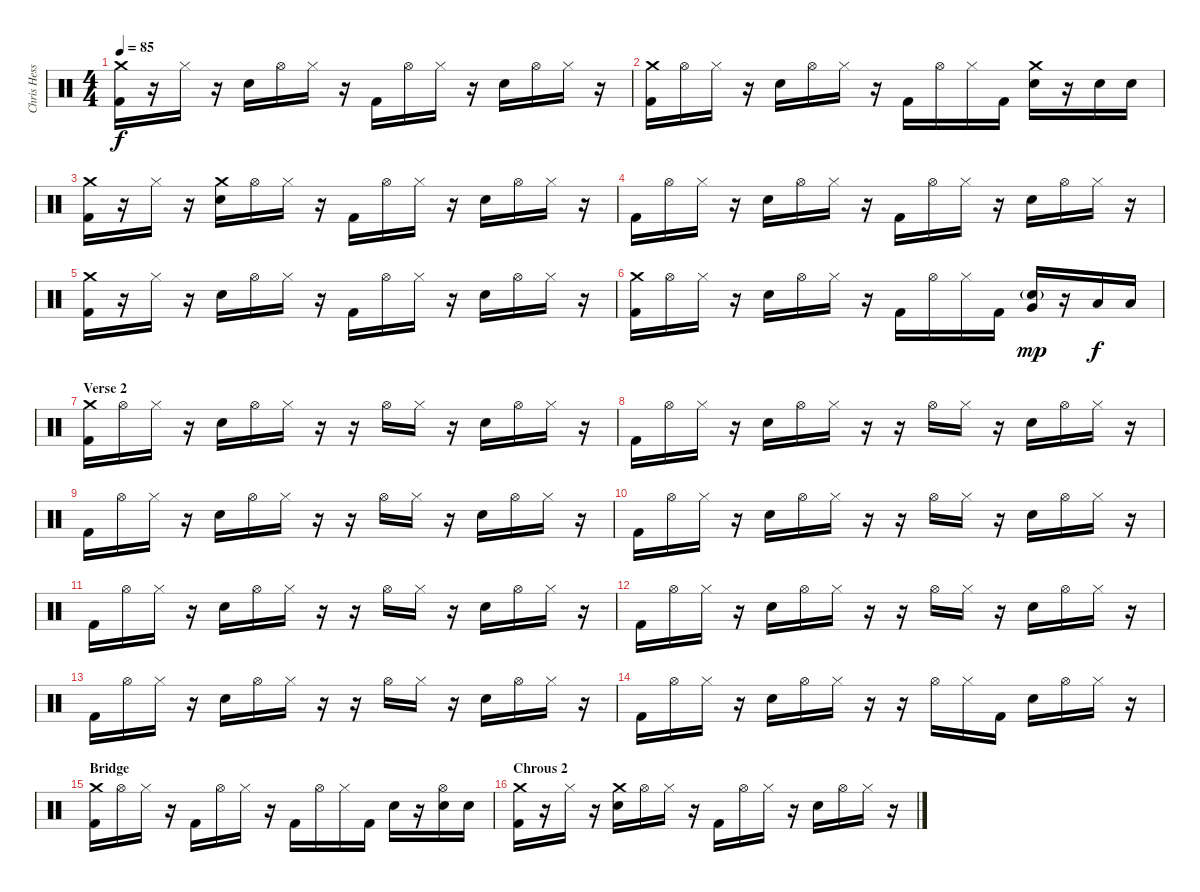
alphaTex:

\track ("Chris Hesse - Drums" "Chris Hess") {instrument percussion}
\staff {score}
\articulation defaults
\ts (4 4)
\tempo 85
\clef neutral
\ks c
("Crash medium (hit)" "Kick (hit) 2").16{dy f} r.16 "Hi-Hat (closed)".16 r.16 "Snare (hit) 2".16 "Hi-Hat (open)".16 "Hi-Hat (closed)".16 r.16 "Kick (hit) 2".16 "Hi-Hat (open)".16 "Hi-Hat (closed)".16 r.16 "Snare (hit) 2".16 "Hi-Hat (open)".16 "Hi-Hat (closed)".16 r.16 |
("Crash medium (hit)" "Kick (hit) 2").16 "Hi-Hat (open)".16 "Hi-Hat (closed)".16 r.16 "Snare (hit) 2".16 "Hi-Hat (open)".16 "Hi-Hat (closed)".16 r.16 "Kick (hit) 2".16 "Hi-Hat (open)".16 "Hi-Hat (closed)".16 "Kick (hit) 2".16 ("Crash medium (hit)" "Snare (hit) 2").16 r.16 "Snare (hit) 2".16 "Snare (hit) 2".16 |
("Crash medium (hit)" "Kick (hit) 2").16 r.16 "Hi-Hat (closed)".16 r.16 ("Crash medium (hit)" "Snare (hit) 2").16 "Hi-Hat (open)".16 "Hi-Hat (closed)".16 r.16 "Kick (hit) 2".16 "Hi-Hat (open)".16 "Hi-Hat (closed)".16 r.16 "Snare (hit) 2".16 "Hi-Hat (open)".16 "Hi-Hat (closed)".16 r.16 |
"Kick (hit) 2".16 "Hi-Hat (open)".16 "Hi-Hat (closed)".16 r.16 "Snare (hit) 2".16 "Hi-Hat (open)".16 "Hi-Hat (closed)".16 r.16 "Kick (hit) 2".16 "Hi-Hat (open)".16 "Hi-Hat (closed)".16 r.16 "Snare (hit) 2".16 "Hi-Hat (open)".16 "Hi-Hat (closed)".16 r.16 |
("Crash medium (hit)" "Kick (hit) 2").16 r.16 "Hi-Hat (closed)".16 r.16 "Snare (hit) 2".16 "Hi-Hat (open)".16 "Hi-Hat (closed)".16 r.16 "Kick (hit) 2".16 "Hi-Hat (open)".16 "Hi-Hat (closed)".16 r.16 "Snare (hit) 2".16 "Hi-Hat (open)".16 "Hi-Hat (closed)".16 r.16 |
("Crash medium (hit)" "Kick (hit) 2").16 "Hi-Hat (open)".16 "Hi-Hat (closed)".16 r.16 "Snare (hit) 2".16 "Hi-Hat (open)".16 "Hi-Hat (closed)".16 r.16 "Kick (hit) 2".16 "Hi-Hat (open)".16 "Hi-Hat (closed)".16 "Kick (hit) 2".16 ("Very Low Tom (hit)" "Snare (hit) 2"{g}).16{dy mp} r.16 "Low Floor Tom (hit)".16{dy f} "Low Floor Tom (hit)".16 |
\section ("" "Verse 2")
("Crash medium (hit)" "Kick (hit) 2").16 "Hi-Hat (open)".16 "Hi-Hat (closed)".16 r.16 "Snare (hit) 2".16 "Hi-Hat (open)".16 "Hi-Hat (closed)".16 r.16 r.16 "Hi-Hat (open)".16 "Hi-Hat (closed)".16 r.16 "Snare (hit) 2".16 "Hi-Hat (open)".16 "Hi-Hat (closed)".16 r.16 |
"Kick (hit) 2".16 "Hi-Hat (open)".16 "Hi-Hat (closed)".16 r.16 "Snare (hit) 2".16 "Hi-Hat (open)".16 "Hi-Hat (closed)".16 r.16 r.16 "Hi-Hat (open)".16 "Hi-Hat (closed)".16 r.16 "Snare (hit) 2".16 "Hi-Hat (open)".16 "Hi-Hat (closed)".16 r.16 |
"Kick (hit) 2".16 "Hi-Hat (open)".16 "Hi-Hat (closed)".16 r.16 "Snare (hit) 2".16 "Hi-Hat (open)".16 "Hi-Hat (closed)".16 r.16 r.16 "Hi-Hat (open)".16 "Hi-Hat (closed)".16 r.16 "Snare (hit) 2".16 "Hi-Hat (open)".16 "Hi-Hat (closed)".16 r.16 |
"Kick (hit) 2".16 "Hi-Hat (open)".16 "Hi-Hat (closed)".16 r.16 "Snare (hit) 2".16 "Hi-Hat (open)".16 "Hi-Hat (closed)".16 r.16 r.16 "Hi-Hat (open)".16 "Hi-Hat (closed)".16 r.16 "Snare (hit) 2".16 "Hi-Hat (open)".16 "Hi-Hat (closed)".16 r.16 |
"Kick (hit) 2".16 "Hi-Hat (open)".16 "Hi-Hat (closed)".16 r.16 "Snare (hit) 2".16 "Hi-Hat (open)".16 "Hi-Hat (closed)".16 r.16 r.16 "Hi-Hat (open)".16 "Hi-Hat (closed)".16 r.16 "Snare (hit) 2".16 "Hi-Hat (open)".16 "Hi-Hat (closed)".16 r.16 |
"Kick (hit) 2".16 "Hi-Hat (open)".16 "Hi-Hat (closed)".16 r.16 "Snare (hit) 2".16 "Hi-Hat (open)".16 "Hi-Hat (closed)".16 r.16 r.16 "Hi-Hat (open)".16 "Hi-Hat (closed)".16 r.16 "Snare (hit) 2".16 "Hi-Hat (open)".16 "Hi-Hat (closed)".16 r.16 |
"Kick (hit) 2".16 "Hi-Hat (open)".16 "Hi-Hat (closed)".16 r.16 "Snare (hit) 2".16 "Hi-Hat (open)".16 "Hi-Hat (closed)".16 r.16 r.16 "Hi-Hat (open)".16 "Hi-Hat (closed)".16 r.16 "Snare (hit) 2".16 "Hi-Hat (open)".16 "Hi-Hat (closed)".16 r.16 |
"Kick (hit) 2".16 "Hi-Hat (open)".16 "Hi-Hat (closed)".16 r.16 "Snare (hit) 2".16 "Hi-Hat (open)".16 "Hi-Hat (closed)".16 r.16 r.16 "Hi-Hat (open)".16 "Hi-Hat (closed)".16 "Kick (hit) 2".16 "Snare (hit) 2".16 "Hi-Hat (open)".16 "Hi-Hat (closed)".16 r.16 |
\section ("" "Bridge")
("Crash medium (hit)" "Kick (hit) 2").16 "Hi-Hat (open)".16 "Hi-Hat (closed)".16 r.16 "Kick (hit) 2".16 "Hi-Hat (open)".16 "Hi-Hat (closed)".16 r.16 "Kick (hit) 2".16 "Hi-Hat (open)".16 "Hi-Hat (closed)".16 "Kick (hit) 2".16 "Snare (hit) 2".16 r.16 ("Hi-Hat (open)" "Snare (hit) 2").16 "Snare (hit) 2".16 |
\section ("" "Chrous 2")
("Crash medium (hit)" "Kick (hit) 2").16 r.16 "Hi-Hat (closed)".16 r.16 ("Crash medium (hit)" "Snare (hit) 2").16 "Hi-Hat (open)".16 "Hi-Hat (closed)".16 r.16 "Kick (hit) 2".16 "Hi-Hat (open)".16 "Hi-Hat (closed)".16 r.16 "Snare (hit) 2".16 "Hi-Hat (open)".16 "Hi-Hat (closed)".16 r.16
